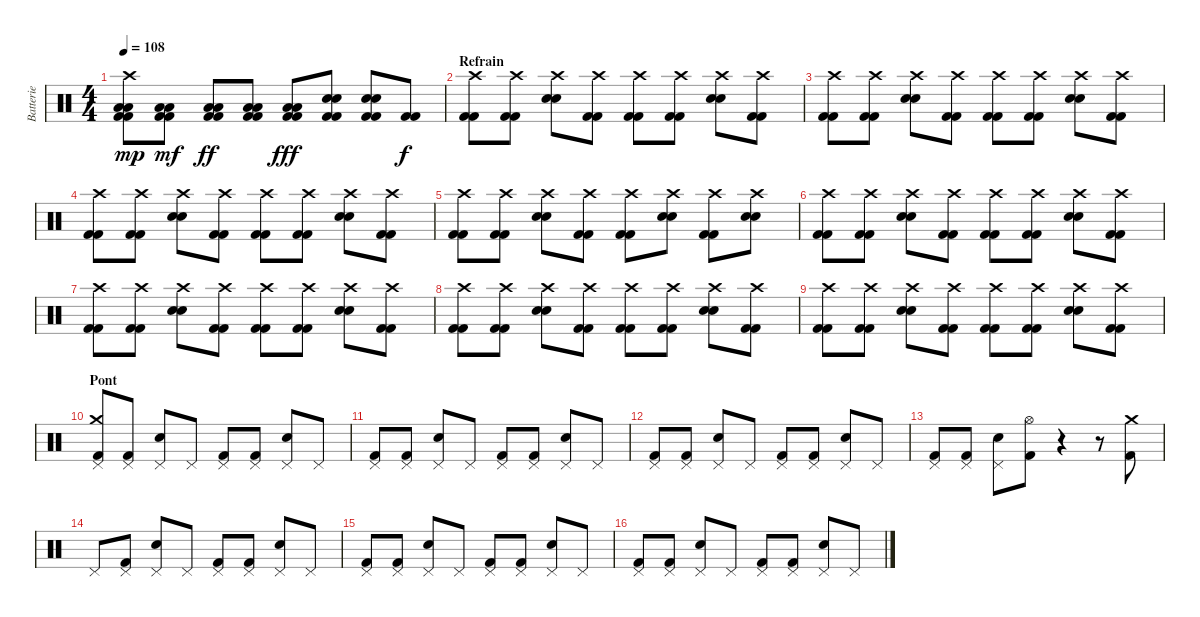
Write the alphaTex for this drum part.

\track ("Batterie" "Batterie") {instrument percussion}
\staff {score}
\articulation defaults
\ts (4 4)
\tempo 108
\clef neutral
\ks c
("Crash high (hit)" "Low Floor Tom (hit)" "Low Floor Tom (hit)" "Kick (hit) 2" "Kick (hit) 2").8{dy mp} ("Low Floor Tom (hit)" "Low Floor Tom (hit)" "Kick (hit) 2" "Kick (hit) 2").8{dy mf} ("Low Floor Tom (hit)" "Low Floor Tom (hit)" "Kick (hit) 2" "Kick (hit) 2").8{dy ff} ("Low Floor Tom (hit)" "Low Floor Tom (hit)" "Kick (hit) 2" "Kick (hit) 2").8 ("Low Floor Tom (hit)" "Low Floor Tom (hit)" "Kick (hit) 2" "Kick (hit) 2").8{dy fff} ("Electric Snare (hit)" "Electric Snare (hit)" "Kick (hit) 2" "Kick (hit) 2").8 ("Electric Snare (hit)" "Electric Snare (hit)" "Kick (hit) 2" "Kick (hit) 2").8 ("Kick (hit) 2" "Kick (hit) 2").8{dy f} |
\section ("" "Refrain")
("Crash high (hit)" "Kick (hit) 2" "Kick (hit) 2").8 ("Crash high (hit)" "Kick (hit) 2" "Kick (hit) 2").8 ("Crash high (hit)" "Electric Snare (hit)" "Electric Snare (hit)").8 ("Crash high (hit)" "Kick (hit) 2" "Kick (hit) 2").8 ("Crash high (hit)" "Kick (hit) 2" "Kick (hit) 2").8 ("Crash high (hit)" "Kick (hit) 2" "Kick (hit) 2").8 ("Crash high (hit)" "Electric Snare (hit)" "Electric Snare (hit)").8 ("Crash high (hit)" "Kick (hit) 2" "Kick (hit) 2").8 |
("Crash high (hit)" "Kick (hit) 2" "Kick (hit) 2").8 ("Crash high (hit)" "Kick (hit) 2" "Kick (hit) 2").8 ("Crash high (hit)" "Electric Snare (hit)" "Electric Snare (hit)").8 ("Crash high (hit)" "Kick (hit) 2" "Kick (hit) 2").8 ("Crash high (hit)" "Kick (hit) 2" "Kick (hit) 2").8 ("Crash high (hit)" "Kick (hit) 2" "Kick (hit) 2").8 ("Crash high (hit)" "Electric Snare (hit)" "Electric Snare (hit)").8 ("Crash high (hit)" "Kick (hit) 2" "Kick (hit) 2").8 |
("Crash high (hit)" "Kick (hit) 2" "Kick (hit) 2").8 ("Crash high (hit)" "Kick (hit) 2" "Kick (hit) 2").8 ("Crash high (hit)" "Electric Snare (hit)" "Electric Snare (hit)").8 ("Crash high (hit)" "Kick (hit) 2" "Kick (hit) 2").8 ("Crash high (hit)" "Kick (hit) 2" "Kick (hit) 2").8 ("Crash high (hit)" "Kick (hit) 2" "Kick (hit) 2").8 ("Crash high (hit)" "Electric Snare (hit)" "Electric Snare (hit)").8 ("Crash high (hit)" "Kick (hit) 2" "Kick (hit) 2").8 |
("Crash high (hit)" "Kick (hit) 2" "Kick (hit) 2").8 ("Crash high (hit)" "Kick (hit) 2" "Kick (hit) 2").8 ("Crash high (hit)" "Electric Snare (hit)" "Electric Snare (hit)").8 ("Crash high (hit)" "Kick (hit) 2" "Kick (hit) 2").8 ("Crash high (hit)" "Kick (hit) 2" "Kick (hit) 2").8 ("Crash high (hit)" "Electric Snare (hit)" "Electric Snare (hit)").8 ("Crash high (hit)" "Kick (hit) 2" "Kick (hit) 2").8 ("Crash high (hit)" "Electric Snare (hit)" "Electric Snare (hit)").8 |
("Crash high (hit)" "Kick (hit) 2" "Kick (hit) 2").8 ("Crash high (hit)" "Kick (hit) 2" "Kick (hit) 2").8 ("Crash high (hit)" "Electric Snare (hit)" "Electric Snare (hit)").8 ("Crash high (hit)" "Kick (hit) 2" "Kick (hit) 2").8 ("Crash high (hit)" "Kick (hit) 2" "Kick (hit) 2").8 ("Crash high (hit)" "Kick (hit) 2" "Kick (hit) 2").8 ("Crash high (hit)" "Electric Snare (hit)" "Electric Snare (hit)").8 ("Crash high (hit)" "Kick (hit) 2" "Kick (hit) 2").8 |
("Crash high (hit)" "Kick (hit) 2" "Kick (hit) 2").8 ("Crash high (hit)" "Kick (hit) 2" "Kick (hit) 2").8 ("Crash high (hit)" "Electric Snare (hit)" "Electric Snare (hit)").8 ("Crash high (hit)" "Kick (hit) 2" "Kick (hit) 2").8 ("Crash high (hit)" "Kick (hit) 2" "Kick (hit) 2").8 ("Crash high (hit)" "Kick (hit) 2" "Kick (hit) 2").8 ("Crash high (hit)" "Electric Snare (hit)" "Electric Snare (hit)").8 ("Crash high (hit)" "Kick (hit) 2" "Kick (hit) 2").8 |
("Crash high (hit)" "Kick (hit) 2" "Kick (hit) 2").8 ("Crash high (hit)" "Kick (hit) 2" "Kick (hit) 2").8 ("Crash high (hit)" "Electric Snare (hit)" "Electric Snare (hit)").8 ("Crash high (hit)" "Kick (hit) 2" "Kick (hit) 2").8 ("Crash high (hit)" "Kick (hit) 2" "Kick (hit) 2").8 ("Crash high (hit)" "Kick (hit) 2" "Kick (hit) 2").8 ("Crash high (hit)" "Electric Snare (hit)" "Electric Snare (hit)").8 ("Crash high (hit)" "Kick (hit) 2" "Kick (hit) 2").8 |
("Crash high (hit)" "Kick (hit) 2" "Kick (hit) 2").8 ("Crash high (hit)" "Kick (hit) 2" "Kick (hit) 2").8 ("Crash high (hit)" "Electric Snare (hit)" "Electric Snare (hit)").8 ("Crash high (hit)" "Kick (hit) 2" "Kick (hit) 2").8 ("Crash high (hit)" "Kick (hit) 2" "Kick (hit) 2").8 ("Crash high (hit)" "Kick (hit) 2" "Kick (hit) 2").8 ("Crash high (hit)" "Electric Snare (hit)" "Electric Snare (hit)").8 ("Crash high (hit)" "Kick (hit) 2" "Kick (hit) 2").8 |
\section ("" "Pont")
("Crash medium (hit)" "Pedal Hi-Hat (hit)" "Kick (hit) 2").8 ("Pedal Hi-Hat (hit)" "Kick (hit) 2").8 ("Electric Snare (hit)" "Pedal Hi-Hat (hit)").8 "Pedal Hi-Hat (hit)".8 ("Pedal Hi-Hat (hit)" "Kick (hit) 2").8 ("Pedal Hi-Hat (hit)" "Kick (hit) 2").8 ("Electric Snare (hit)" "Pedal Hi-Hat (hit)").8 "Pedal Hi-Hat (hit)".8 |
("Pedal Hi-Hat (hit)" "Kick (hit) 2").8 ("Pedal Hi-Hat (hit)" "Kick (hit) 2").8 ("Electric Snare (hit)" "Pedal Hi-Hat (hit)").8 "Pedal Hi-Hat (hit)".8 ("Pedal Hi-Hat (hit)" "Kick (hit) 2").8 ("Pedal Hi-Hat (hit)" "Kick (hit) 2").8 ("Electric Snare (hit)" "Pedal Hi-Hat (hit)").8 "Pedal Hi-Hat (hit)".8 |
("Pedal Hi-Hat (hit)" "Kick (hit) 2").8 ("Pedal Hi-Hat (hit)" "Kick (hit) 2").8 ("Electric Snare (hit)" "Pedal Hi-Hat (hit)").8 "Pedal Hi-Hat (hit)".8 ("Pedal Hi-Hat (hit)" "Kick (hit) 2").8 ("Pedal Hi-Hat (hit)" "Kick (hit) 2").8 ("Electric Snare (hit)" "Pedal Hi-Hat (hit)").8 "Pedal Hi-Hat (hit)".8 |
("Pedal Hi-Hat (hit)" "Kick (hit) 2").8 ("Pedal Hi-Hat (hit)" "Kick (hit) 2").8 ("Electric Snare (hit)" "Pedal Hi-Hat (hit)").8 ("Hi-Hat (open)" "Kick (hit) 2").8 r.4 r.8 ("Crash medium (hit)" "Kick (hit) 2").8 |
"Pedal Hi-Hat (hit)".8 ("Pedal Hi-Hat (hit)" "Kick (hit) 2").8 ("Electric Snare (hit)" "Pedal Hi-Hat (hit)").8 "Pedal Hi-Hat (hit)".8 ("Pedal Hi-Hat (hit)" "Kick (hit) 2").8 ("Pedal Hi-Hat (hit)" "Kick (hit) 2").8 ("Electric Snare (hit)" "Pedal Hi-Hat (hit)").8 "Pedal Hi-Hat (hit)".8 |
("Pedal Hi-Hat (hit)" "Kick (hit) 2").8 ("Pedal Hi-Hat (hit)" "Kick (hit) 2").8 ("Electric Snare (hit)" "Pedal Hi-Hat (hit)").8 "Pedal Hi-Hat (hit)".8 ("Pedal Hi-Hat (hit)" "Kick (hit) 2").8 ("Pedal Hi-Hat (hit)" "Kick (hit) 2").8 ("Electric Snare (hit)" "Pedal Hi-Hat (hit)").8 "Pedal Hi-Hat (hit)".8 |
("Pedal Hi-Hat (hit)" "Kick (hit) 2").8 ("Pedal Hi-Hat (hit)" "Kick (hit) 2").8 ("Electric Snare (hit)" "Pedal Hi-Hat (hit)").8 "Pedal Hi-Hat (hit)".8 ("Pedal Hi-Hat (hit)" "Kick (hit) 2").8 ("Pedal Hi-Hat (hit)" "Kick (hit) 2").8 ("Electric Snare (hit)" "Pedal Hi-Hat (hit)").8 "Pedal Hi-Hat (hit)".8
